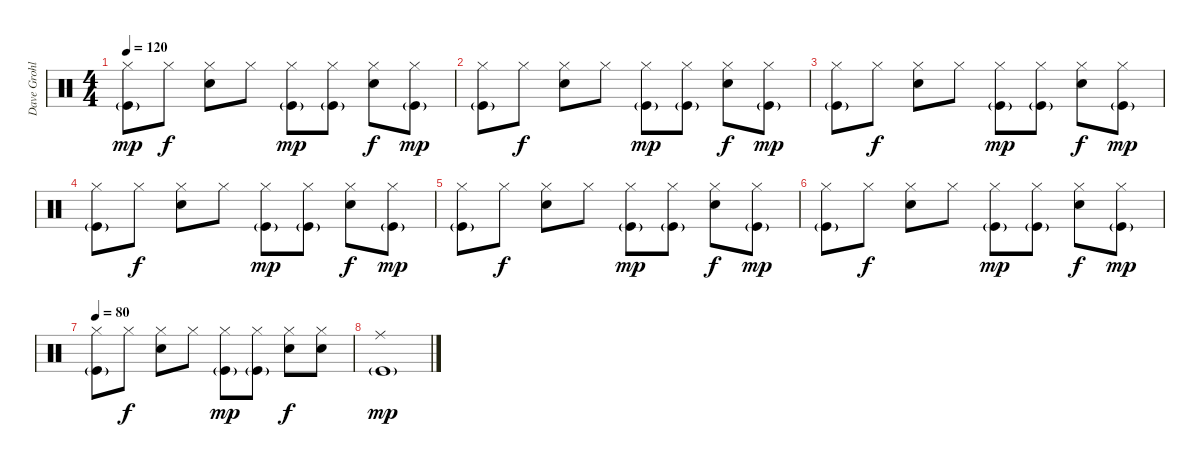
\track ("Dave Grohl" "Dave Grohl") {instrument percussion}
\staff {score}
\articulation defaults
\ts (4 4)
\tempo 120
\clef neutral
\ks c
("Hi-Hat (closed)" "Kick (hit)"{g}).8{dy mp} "Hi-Hat (closed)".8{dy f} ("Hi-Hat (closed)" "Electric Snare (hit)").8 "Hi-Hat (closed)".8 ("Hi-Hat (closed)" "Kick (hit)"{g}).8{dy mp} ("Hi-Hat (closed)" "Kick (hit)"{g}).8 ("Hi-Hat (closed)" "Electric Snare (hit)").8{dy f} ("Hi-Hat (closed)" "Kick (hit)"{g}).8{dy mp} |
("Hi-Hat (closed)" "Kick (hit)"{g}).8 "Hi-Hat (closed)".8{dy f} ("Hi-Hat (closed)" "Electric Snare (hit)").8 "Hi-Hat (closed)".8 ("Hi-Hat (closed)" "Kick (hit)"{g}).8{dy mp} ("Hi-Hat (closed)" "Kick (hit)"{g}).8 ("Hi-Hat (closed)" "Electric Snare (hit)").8{dy f} ("Hi-Hat (closed)" "Kick (hit)"{g}).8{dy mp} |
("Hi-Hat (closed)" "Kick (hit)"{g}).8 "Hi-Hat (closed)".8{dy f} ("Hi-Hat (closed)" "Electric Snare (hit)").8 "Hi-Hat (closed)".8 ("Hi-Hat (closed)" "Kick (hit)"{g}).8{dy mp} ("Hi-Hat (closed)" "Kick (hit)"{g}).8 ("Hi-Hat (closed)" "Electric Snare (hit)").8{dy f} ("Hi-Hat (closed)" "Kick (hit)"{g}).8{dy mp} |
("Hi-Hat (closed)" "Kick (hit)"{g}).8 "Hi-Hat (closed)".8{dy f} ("Hi-Hat (closed)" "Electric Snare (hit)").8 "Hi-Hat (closed)".8 ("Hi-Hat (closed)" "Kick (hit)"{g}).8{dy mp} ("Hi-Hat (closed)" "Kick (hit)"{g}).8 ("Hi-Hat (closed)" "Electric Snare (hit)").8{dy f} ("Hi-Hat (closed)" "Kick (hit)"{g}).8{dy mp} |
("Hi-Hat (closed)" "Kick (hit)"{g}).8 "Hi-Hat (closed)".8{dy f} ("Hi-Hat (closed)" "Electric Snare (hit)").8 "Hi-Hat (closed)".8 ("Hi-Hat (closed)" "Kick (hit)"{g}).8{dy mp} ("Hi-Hat (closed)" "Kick (hit)"{g}).8 ("Hi-Hat (closed)" "Electric Snare (hit)").8{dy f} ("Hi-Hat (closed)" "Kick (hit)"{g}).8{dy mp} |
("Hi-Hat (closed)" "Kick (hit)"{g}).8 "Hi-Hat (closed)".8{dy f} ("Hi-Hat (closed)" "Electric Snare (hit)").8 "Hi-Hat (closed)".8 ("Hi-Hat (closed)" "Kick (hit)"{g}).8{dy mp} ("Hi-Hat (closed)" "Kick (hit)"{g}).8 ("Hi-Hat (closed)" "Electric Snare (hit)").8{dy f} ("Hi-Hat (closed)" "Kick (hit)"{g}).8{dy mp} |
\tempo 80
("Hi-Hat (closed)" "Kick (hit)"{g}).8 "Hi-Hat (closed)".8{dy f} ("Hi-Hat (closed)" "Electric Snare (hit)").8 "Hi-Hat (closed)".8 ("Hi-Hat (closed)" "Kick (hit)"{g}).8{dy mp} ("Hi-Hat (closed)" "Kick (hit)"{g}).8 ("Hi-Hat (closed)" "Electric Snare (hit)").8{dy f} ("Hi-Hat (closed)" "Electric Snare (hit)").8 |
("Ride (middle)" "Kick (hit)"{g}).1{dy mp}
